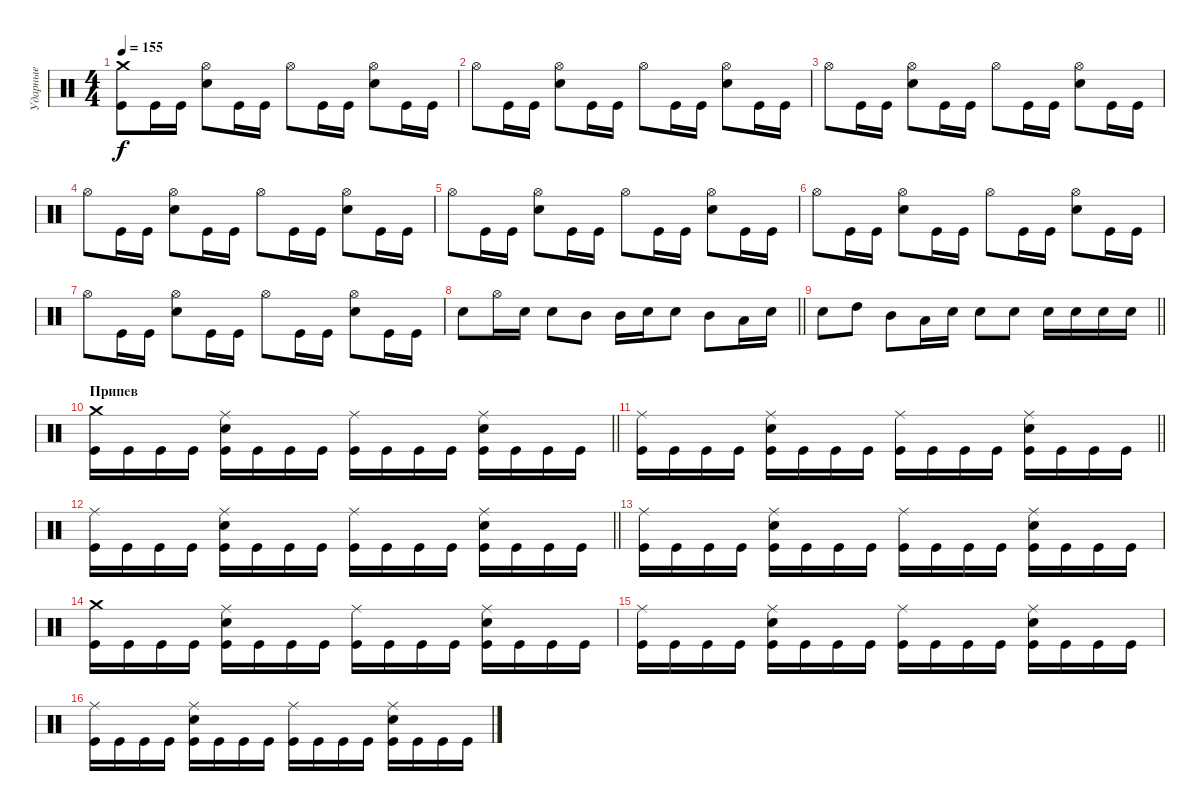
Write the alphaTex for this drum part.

\track ("Ударные" "Ударные") {instrument percussion}
\staff {score}
\articulation defaults
\ts (4 4)
\tempo 155
\clef neutral
\ks c
("Kick (hit)" "Crash medium (hit)").8{dy f} "Kick (hit)".16 "Kick (hit)".16 ("Snare (hit) 2" "Hi-Hat (open)").8 "Kick (hit)".16 "Kick (hit)".16 "Hi-Hat (open)".8 "Kick (hit)".16 "Kick (hit)".16 ("Snare (hit) 2" "Hi-Hat (open)").8 "Kick (hit)".16 "Kick (hit)".16 |
"Hi-Hat (open)".8 "Kick (hit)".16 "Kick (hit)".16 ("Snare (hit) 2" "Hi-Hat (open)").8 "Kick (hit)".16 "Kick (hit)".16 "Hi-Hat (open)".8 "Kick (hit)".16 "Kick (hit)".16 ("Snare (hit) 2" "Hi-Hat (open)").8 "Kick (hit)".16 "Kick (hit)".16 |
"Hi-Hat (open)".8 "Kick (hit)".16 "Kick (hit)".16 ("Snare (hit) 2" "Hi-Hat (open)").8 "Kick (hit)".16 "Kick (hit)".16 "Hi-Hat (open)".8 "Kick (hit)".16 "Kick (hit)".16 ("Snare (hit) 2" "Hi-Hat (open)").8 "Kick (hit)".16 "Kick (hit)".16 |
"Hi-Hat (open)".8 "Kick (hit)".16 "Kick (hit)".16 ("Snare (hit) 2" "Hi-Hat (open)").8 "Kick (hit)".16 "Kick (hit)".16 "Hi-Hat (open)".8 "Kick (hit)".16 "Kick (hit)".16 ("Snare (hit) 2" "Hi-Hat (open)").8 "Kick (hit)".16 "Kick (hit)".16 |
"Hi-Hat (open)".8 "Kick (hit)".16 "Kick (hit)".16 ("Snare (hit) 2" "Hi-Hat (open)").8 "Kick (hit)".16 "Kick (hit)".16 "Hi-Hat (open)".8 "Kick (hit)".16 "Kick (hit)".16 ("Snare (hit) 2" "Hi-Hat (open)").8 "Kick (hit)".16 "Kick (hit)".16 |
"Hi-Hat (open)".8 "Kick (hit)".16 "Kick (hit)".16 ("Snare (hit) 2" "Hi-Hat (open)").8 "Kick (hit)".16 "Kick (hit)".16 "Hi-Hat (open)".8 "Kick (hit)".16 "Kick (hit)".16 ("Snare (hit) 2" "Hi-Hat (open)").8 "Kick (hit)".16 "Kick (hit)".16 |
"Hi-Hat (open)".8 "Kick (hit)".16 "Kick (hit)".16 ("Snare (hit) 2" "Hi-Hat (open)").8 "Kick (hit)".16 "Kick (hit)".16 "Hi-Hat (open)".8 "Kick (hit)".16 "Kick (hit)".16 ("Snare (hit) 2" "Hi-Hat (open)").8 "Kick (hit)".16 "Kick (hit)".16 |
\barLineRight lightlight "Snare (hit) 2".8 "Hi-Hat (open)".16 "Snare (hit) 2".16 "Snare (hit) 2".8 "Mid Tom (hit)".8 "Mid Tom (hit)".16 "Snare (hit) 2".16 "Snare (hit) 2".8 "Mid Tom (hit)".8 "Low Tom (hit)".16 "Snare (hit) 2".16
|
\barLineRight lightlight "Snare (hit) 2".8 "High Tom (hit)".8 "Mid Tom (hit)".8 "Low Tom (hit)".16 "Snare (hit) 2".16 "Snare (hit) 2".8 "Snare (hit) 2".8 "Snare (hit) 2".16 "Snare (hit) 2".16 "Snare (hit) 2".16 "Snare (hit) 2".16
|
\section ("" "Припев")
\barLineRight lightlight
("Kick (hit)" "Crash medium (hit)").16 "Kick (hit)".16 "Kick (hit)".16 "Kick (hit)".16 ("Kick (hit)" "Snare (hit) 2" "Ride (middle)").16 "Kick (hit)".16 "Kick (hit)".16 "Kick (hit)".16 ("Kick (hit)" "Ride (middle)").16 "Kick (hit)".16 "Kick (hit)".16 "Kick (hit)".16 ("Kick (hit)" "Snare (hit) 2" "Ride (middle)").16 "Kick (hit)".16 "Kick (hit)".16 "Kick (hit)".16 |
\barLineRight lightlight
("Kick (hit)" "Ride (middle)").16 "Kick (hit)".16 "Kick (hit)".16 "Kick (hit)".16 ("Kick (hit)" "Snare (hit) 2" "Ride (middle)").16 "Kick (hit)".16 "Kick (hit)".16 "Kick (hit)".16 ("Kick (hit)" "Ride (middle)").16 "Kick (hit)".16 "Kick (hit)".16 "Kick (hit)".16 ("Kick (hit)" "Snare (hit) 2" "Ride (middle)").16 "Kick (hit)".16 "Kick (hit)".16 "Kick (hit)".16 |
\barLineRight lightlight
("Kick (hit)" "Ride (middle)").16 "Kick (hit)".16 "Kick (hit)".16 "Kick (hit)".16 ("Kick (hit)" "Snare (hit) 2" "Ride (middle)").16 "Kick (hit)".16 "Kick (hit)".16 "Kick (hit)".16 ("Kick (hit)" "Ride (middle)").16 "Kick (hit)".16 "Kick (hit)".16 "Kick (hit)".16 ("Kick (hit)" "Snare (hit) 2" "Ride (middle)").16 "Kick (hit)".16 "Kick (hit)".16 "Kick (hit)".16 |
("Kick (hit)" "Ride (middle)").16 "Kick (hit)".16 "Kick (hit)".16 "Kick (hit)".16 ("Kick (hit)" "Snare (hit) 2" "Ride (middle)").16 "Kick (hit)".16 "Kick (hit)".16 "Kick (hit)".16 ("Kick (hit)" "Ride (middle)").16 "Kick (hit)".16 "Kick (hit)".16 "Kick (hit)".16 ("Kick (hit)" "Snare (hit) 2" "Ride (middle)").16 "Kick (hit)".16 "Kick (hit)".16 "Kick (hit)".16 |
("Kick (hit)" "Crash medium (hit)").16 "Kick (hit)".16 "Kick (hit)".16 "Kick (hit)".16 ("Kick (hit)" "Snare (hit) 2" "Ride (middle)").16 "Kick (hit)".16 "Kick (hit)".16 "Kick (hit)".16 ("Kick (hit)" "Ride (middle)").16 "Kick (hit)".16 "Kick (hit)".16 "Kick (hit)".16 ("Kick (hit)" "Snare (hit) 2" "Ride (middle)").16 "Kick (hit)".16 "Kick (hit)".16 "Kick (hit)".16 |
("Kick (hit)" "Ride (middle)").16 "Kick (hit)".16 "Kick (hit)".16 "Kick (hit)".16 ("Kick (hit)" "Snare (hit) 2" "Ride (middle)").16 "Kick (hit)".16 "Kick (hit)".16 "Kick (hit)".16 ("Kick (hit)" "Ride (middle)").16 "Kick (hit)".16 "Kick (hit)".16 "Kick (hit)".16 ("Kick (hit)" "Snare (hit) 2" "Ride (middle)").16 "Kick (hit)".16 "Kick (hit)".16 "Kick (hit)".16 |
("Kick (hit)" "Ride (middle)").16 "Kick (hit)".16 "Kick (hit)".16 "Kick (hit)".16 ("Kick (hit)" "Snare (hit) 2" "Ride (middle)").16 "Kick (hit)".16 "Kick (hit)".16 "Kick (hit)".16 ("Kick (hit)" "Ride (middle)").16 "Kick (hit)".16 "Kick (hit)".16 "Kick (hit)".16 ("Kick (hit)" "Snare (hit) 2" "Ride (middle)").16 "Kick (hit)".16 "Kick (hit)".16 "Kick (hit)".16
